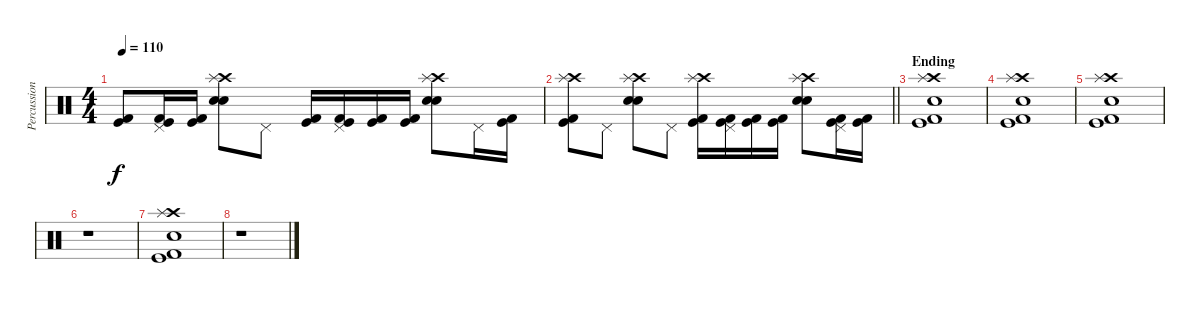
\track ("Percussion" "Percussion") {instrument percussion}
\staff {score}
\articulation defaults
\ts (4 4)
\tempo 110
\clef neutral
\ks c
("Kick (hit)" "Kick (hit) 2").8{dy f} ("Pedal Hi-Hat (hit)" "Kick (hit)" "Kick (hit) 2").16 ("Kick (hit)" "Kick (hit) 2").16 ("Crash high (hit)" "Electric Snare (hit)" "Snare (hit) 2" "Splash (hit)").8 "Pedal Hi-Hat (hit)".8 ("Kick (hit)" "Kick (hit) 2").16 ("Pedal Hi-Hat (hit)" "Kick (hit)" "Kick (hit) 2").16 ("Kick (hit)" "Kick (hit) 2").16 ("Kick (hit)" "Kick (hit) 2").16 ("Crash high (hit)" "Electric Snare (hit)" "Snare (hit) 2" "Splash (hit)").8 "Pedal Hi-Hat (hit)".16 ("Kick (hit)" "Kick (hit) 2").16 |
\barLineRight lightlight
("Crash high (hit)" "Splash (hit)" "Kick (hit)" "Kick (hit) 2").8 "Pedal Hi-Hat (hit)".8 ("Crash high (hit)" "Electric Snare (hit)" "Snare (hit) 2" "Splash (hit)").8 "Pedal Hi-Hat (hit)".8 ("Crash high (hit)" "Splash (hit)" "Kick (hit)" "Kick (hit) 2").16 ("Pedal Hi-Hat (hit)" "Kick (hit)" "Kick (hit) 2").16 ("Kick (hit)" "Kick (hit) 2").16 ("Kick (hit)" "Kick (hit) 2").16 ("Crash high (hit)" "Electric Snare (hit)" "Snare (hit) 2" "Splash (hit)").8 ("Pedal Hi-Hat (hit)" "Kick (hit)" "Kick (hit) 2").16 ("Kick (hit)" "Kick (hit) 2").16 |
\section ("" "Ending")
("Crash high (hit)" "Splash (hit)" "Snare (hit) 2" "Kick (hit)" "Kick (hit) 2").1 |
("Crash high (hit)" "Splash (hit)" "Snare (hit) 2" "Kick (hit)" "Kick (hit) 2").1 |
("Crash high (hit)" "Splash (hit)" "Snare (hit) 2" "Kick (hit)" "Kick (hit) 2").1 |
r.1 |
("Crash high (hit)" "Splash (hit)" "Snare (hit) 2" "Kick (hit)" "Kick (hit) 2").1 |
r.1
